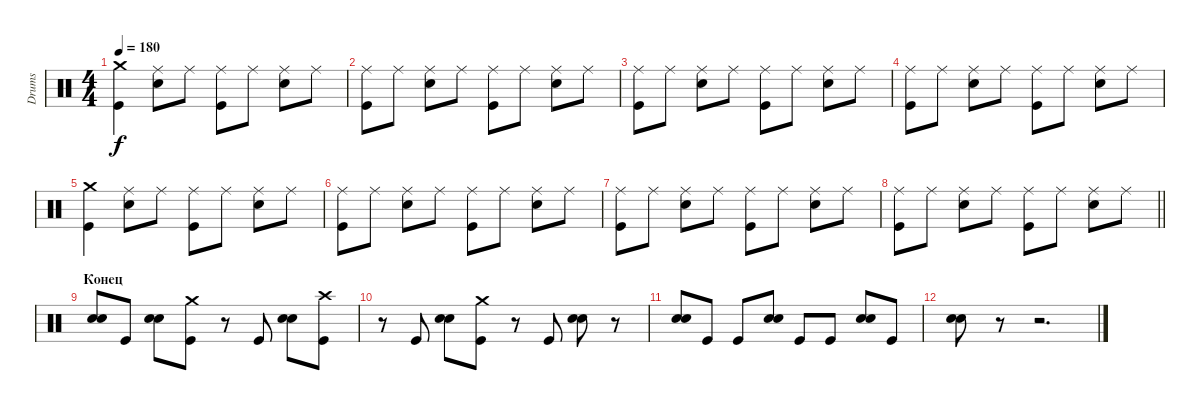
\track ("Drums" "Drums") {instrument percussion}
\staff {score}
\articulation defaults
\ts (4 4)
\tempo 180
\clef neutral
\ks c
("Kick (hit)" "Crash medium (hit)").4{dy f} ("Snare (hit) 2" "Ride (middle)").8 "Ride (middle)".8 ("Kick (hit)" "Ride (middle)").8 "Ride (middle)".8 ("Snare (hit) 2" "Ride (middle)").8 "Ride (middle)".8 |
("Kick (hit)" "Ride (middle)").8 "Ride (middle)".8 ("Snare (hit) 2" "Ride (middle)").8 "Ride (middle)".8 ("Kick (hit)" "Ride (middle)").8 "Ride (middle)".8 ("Snare (hit) 2" "Ride (middle)").8 "Ride (middle)".8 |
("Kick (hit)" "Ride (middle)").8 "Ride (middle)".8 ("Snare (hit) 2" "Ride (middle)").8 "Ride (middle)".8 ("Kick (hit)" "Ride (middle)").8 "Ride (middle)".8 ("Snare (hit) 2" "Ride (middle)").8 "Ride (middle)".8 |
("Kick (hit)" "Ride (middle)").8 "Ride (middle)".8 ("Snare (hit) 2" "Ride (middle)").8 "Ride (middle)".8 ("Kick (hit)" "Ride (middle)").8 "Ride (middle)".8 ("Snare (hit) 2" "Ride (middle)").8 "Ride (middle)".8 |
("Kick (hit)" "Crash medium (hit)").4 ("Snare (hit) 2" "Ride (middle)").8 "Ride (middle)".8 ("Kick (hit)" "Ride (middle)").8 "Ride (middle)".8 ("Snare (hit) 2" "Ride (middle)").8 "Ride (middle)".8 |
("Kick (hit)" "Ride (middle)").8 "Ride (middle)".8 ("Snare (hit) 2" "Ride (middle)").8 "Ride (middle)".8 ("Kick (hit)" "Ride (middle)").8 "Ride (middle)".8 ("Snare (hit) 2" "Ride (middle)").8 "Ride (middle)".8 |
("Kick (hit)" "Ride (middle)").8 "Ride (middle)".8 ("Snare (hit) 2" "Ride (middle)").8 "Ride (middle)".8 ("Kick (hit)" "Ride (middle)").8 "Ride (middle)".8 ("Snare (hit) 2" "Ride (middle)").8 "Ride (middle)".8 |
\barLineRight lightlight
("Kick (hit)" "Ride (middle)").8 "Ride (middle)".8 ("Snare (hit) 2" "Ride (middle)").8 "Ride (middle)".8 ("Kick (hit)" "Ride (middle)").8 "Ride (middle)".8 ("Snare (hit) 2" "Ride (middle)").8 "Ride (middle)".8 |
\section ("" "Конец")
("Snare (hit) 2" "Snare (hit) 2").8{bd 120} "Kick (hit)".8 ("Snare (hit) 2" "Snare (hit) 2").8{bd 120} ("Kick (hit)" "Crash medium (hit)").8 r.8 "Kick (hit)".8 ("Snare (hit) 2" "Snare (hit) 2").8{bd 120} ("Kick (hit)" "Crash high (hit)").8 |
r.8 "Kick (hit)".8 ("Snare (hit) 2" "Snare (hit) 2").8{bd 120} ("Kick (hit)" "Crash medium (hit)").8 r.8 "Kick (hit)".8 ("Snare (hit) 2" "Snare (hit) 2").8{bd 120} r.8 |
("Snare (hit) 2" "Snare (hit) 2").8{bd 60} "Kick (hit)".8 "Kick (hit)".8 ("Snare (hit) 2" "Snare (hit) 2").8{bd 60} "Kick (hit)".8 "Kick (hit)".8 ("Snare (hit) 2" "Snare (hit) 2").8{bd 60} "Kick (hit)".8 |
("Snare (hit) 2" "Snare (hit) 2").8{bd 60} r.8 r.2{d}
